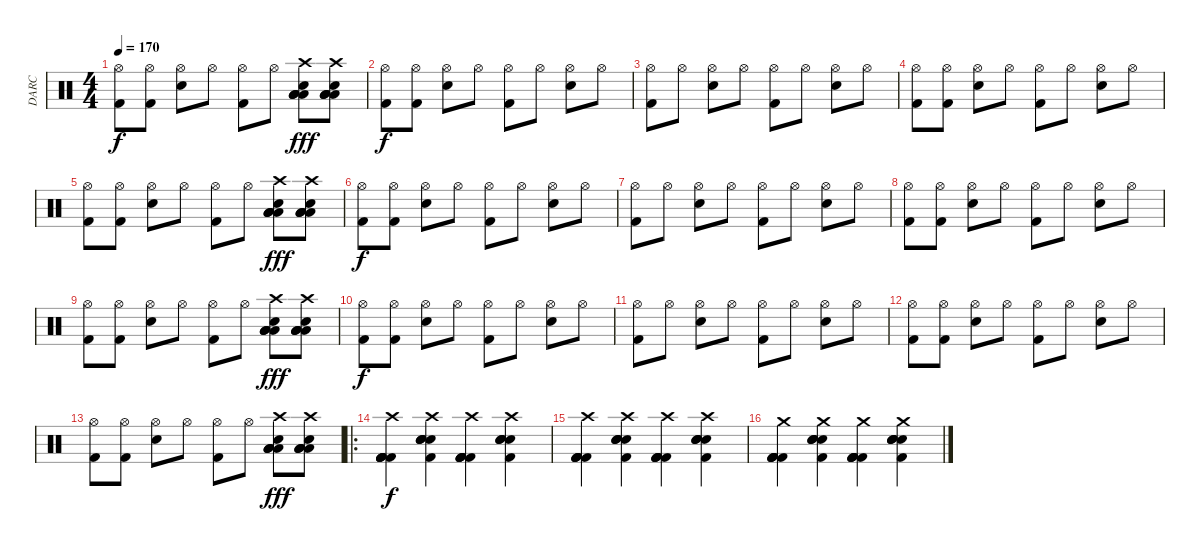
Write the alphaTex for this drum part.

\track ("DARC" "DARC") {instrument percussion}
\staff {score}
\articulation defaults
\ts (4 4)
\tempo 170
\clef neutral
\ks c
("Hi-Hat (open)" "Kick (hit) 2").8{dy f} ("Hi-Hat (open)" "Kick (hit) 2").8 ("Hi-Hat (open)" "Electric Snare (hit)").8 "Hi-Hat (open)".8 ("Hi-Hat (open)" "Kick (hit) 2").8 "Hi-Hat (open)".8 ("Low Floor Tom (hit)" "Low Floor Tom (hit)" "Low Floor Tom (hit)" "Low Floor Tom (hit)" "Crash high (hit)" "Electric Snare (hit)").8{dy fff} ("Low Floor Tom (hit)" "Low Floor Tom (hit)" "Low Floor Tom (hit)" "Low Floor Tom (hit)" "Crash high (hit)" "Electric Snare (hit)").8 |
("Hi-Hat (open)" "Kick (hit) 2").8{dy f} ("Hi-Hat (open)" "Kick (hit) 2").8 ("Hi-Hat (open)" "Electric Snare (hit)").8 "Hi-Hat (open)".8 ("Hi-Hat (open)" "Kick (hit) 2").8 "Hi-Hat (open)".8 ("Hi-Hat (open)" "Electric Snare (hit)").8 "Hi-Hat (open)".8 |
("Hi-Hat (open)" "Kick (hit) 2").8 "Hi-Hat (open)".8 ("Hi-Hat (open)" "Electric Snare (hit)").8 "Hi-Hat (open)".8 ("Hi-Hat (open)" "Kick (hit) 2").8 "Hi-Hat (open)".8 ("Hi-Hat (open)" "Electric Snare (hit)").8 "Hi-Hat (open)".8 |
("Hi-Hat (open)" "Kick (hit) 2").8 ("Hi-Hat (open)" "Kick (hit) 2").8 ("Hi-Hat (open)" "Electric Snare (hit)").8 "Hi-Hat (open)".8 ("Hi-Hat (open)" "Kick (hit) 2").8 "Hi-Hat (open)".8 ("Hi-Hat (open)" "Electric Snare (hit)").8 "Hi-Hat (open)".8 |
("Hi-Hat (open)" "Kick (hit) 2").8 ("Hi-Hat (open)" "Kick (hit) 2").8 ("Hi-Hat (open)" "Electric Snare (hit)").8 "Hi-Hat (open)".8 ("Hi-Hat (open)" "Kick (hit) 2").8 "Hi-Hat (open)".8 ("Low Floor Tom (hit)" "Low Floor Tom (hit)" "Low Floor Tom (hit)" "Low Floor Tom (hit)" "Crash high (hit)" "Electric Snare (hit)").8{dy fff} ("Low Floor Tom (hit)" "Low Floor Tom (hit)" "Low Floor Tom (hit)" "Low Floor Tom (hit)" "Crash high (hit)" "Electric Snare (hit)").8 |
("Hi-Hat (open)" "Kick (hit) 2").8{dy f} ("Hi-Hat (open)" "Kick (hit) 2").8 ("Hi-Hat (open)" "Electric Snare (hit)").8 "Hi-Hat (open)".8 ("Hi-Hat (open)" "Kick (hit) 2").8 "Hi-Hat (open)".8 ("Hi-Hat (open)" "Electric Snare (hit)").8 "Hi-Hat (open)".8 |
("Hi-Hat (open)" "Kick (hit) 2").8 "Hi-Hat (open)".8 ("Hi-Hat (open)" "Electric Snare (hit)").8 "Hi-Hat (open)".8 ("Hi-Hat (open)" "Kick (hit) 2").8 "Hi-Hat (open)".8 ("Hi-Hat (open)" "Electric Snare (hit)").8 "Hi-Hat (open)".8 |
("Hi-Hat (open)" "Kick (hit) 2").8 ("Hi-Hat (open)" "Kick (hit) 2").8 ("Hi-Hat (open)" "Electric Snare (hit)").8 "Hi-Hat (open)".8 ("Hi-Hat (open)" "Kick (hit) 2").8 "Hi-Hat (open)".8 ("Hi-Hat (open)" "Electric Snare (hit)").8 "Hi-Hat (open)".8 |
("Hi-Hat (open)" "Kick (hit) 2").8 ("Hi-Hat (open)" "Kick (hit) 2").8 ("Hi-Hat (open)" "Electric Snare (hit)").8 "Hi-Hat (open)".8 ("Hi-Hat (open)" "Kick (hit) 2").8 "Hi-Hat (open)".8 ("Low Floor Tom (hit)" "Low Floor Tom (hit)" "Low Floor Tom (hit)" "Low Floor Tom (hit)" "Crash high (hit)" "Electric Snare (hit)").8{dy fff} ("Low Floor Tom (hit)" "Low Floor Tom (hit)" "Low Floor Tom (hit)" "Low Floor Tom (hit)" "Crash high (hit)" "Electric Snare (hit)").8 |
("Hi-Hat (open)" "Kick (hit) 2").8{dy f} ("Hi-Hat (open)" "Kick (hit) 2").8 ("Hi-Hat (open)" "Electric Snare (hit)").8 "Hi-Hat (open)".8 ("Hi-Hat (open)" "Kick (hit) 2").8 "Hi-Hat (open)".8 ("Hi-Hat (open)" "Electric Snare (hit)").8 "Hi-Hat (open)".8 |
("Hi-Hat (open)" "Kick (hit) 2").8 "Hi-Hat (open)".8 ("Hi-Hat (open)" "Electric Snare (hit)").8 "Hi-Hat (open)".8 ("Hi-Hat (open)" "Kick (hit) 2").8 "Hi-Hat (open)".8 ("Hi-Hat (open)" "Electric Snare (hit)").8 "Hi-Hat (open)".8 |
("Hi-Hat (open)" "Kick (hit) 2").8 ("Hi-Hat (open)" "Kick (hit) 2").8 ("Hi-Hat (open)" "Electric Snare (hit)").8 "Hi-Hat (open)".8 ("Hi-Hat (open)" "Kick (hit) 2").8 "Hi-Hat (open)".8 ("Hi-Hat (open)" "Electric Snare (hit)").8 "Hi-Hat (open)".8 |
("Hi-Hat (open)" "Kick (hit) 2").8 ("Hi-Hat (open)" "Kick (hit) 2").8 ("Hi-Hat (open)" "Electric Snare (hit)").8 "Hi-Hat (open)".8 ("Hi-Hat (open)" "Kick (hit) 2").8 "Hi-Hat (open)".8 ("Low Floor Tom (hit)" "Low Floor Tom (hit)" "Low Floor Tom (hit)" "Low Floor Tom (hit)" "Crash high (hit)" "Electric Snare (hit)").8{dy fff} ("Low Floor Tom (hit)" "Low Floor Tom (hit)" "Low Floor Tom (hit)" "Low Floor Tom (hit)" "Crash high (hit)" "Electric Snare (hit)").8 |
\ro
("Crash high (hit)" "Kick (hit) 2" "Kick (hit) 2" "Kick (hit) 2" "Kick (hit) 2" "Kick (hit) 2").4{dy f} ("Crash high (hit)" "Kick (hit) 2" "Electric Snare (hit)" "Electric Snare (hit)" "Electric Snare (hit)" "Electric Snare (hit)").4 ("Crash high (hit)" "Kick (hit) 2" "Kick (hit) 2" "Kick (hit) 2" "Kick (hit) 2" "Kick (hit) 2").4 ("Crash high (hit)" "Kick (hit) 2" "Electric Snare (hit)" "Electric Snare (hit)" "Electric Snare (hit)" "Electric Snare (hit)").4 |
("Crash high (hit)" "Kick (hit) 2" "Kick (hit) 2" "Kick (hit) 2" "Kick (hit) 2" "Kick (hit) 2").4 ("Crash high (hit)" "Kick (hit) 2" "Electric Snare (hit)" "Electric Snare (hit)" "Electric Snare (hit)" "Electric Snare (hit)").4 ("Crash high (hit)" "Kick (hit) 2" "Kick (hit) 2" "Kick (hit) 2" "Kick (hit) 2" "Kick (hit) 2").4 ("Crash high (hit)" "Kick (hit) 2" "Electric Snare (hit)" "Electric Snare (hit)" "Electric Snare (hit)" "Electric Snare (hit)").4 |
("Crash medium (hit)" "Kick (hit) 2" "Kick (hit) 2" "Kick (hit) 2" "Kick (hit) 2" "Kick (hit) 2").4 ("Crash medium (hit)" "Kick (hit) 2" "Electric Snare (hit)" "Electric Snare (hit)" "Electric Snare (hit)" "Electric Snare (hit)").4 ("Crash medium (hit)" "Kick (hit) 2" "Kick (hit) 2" "Kick (hit) 2" "Kick (hit) 2" "Kick (hit) 2").4 ("Crash medium (hit)" "Kick (hit) 2" "Electric Snare (hit)" "Electric Snare (hit)" "Electric Snare (hit)" "Electric Snare (hit)").4
